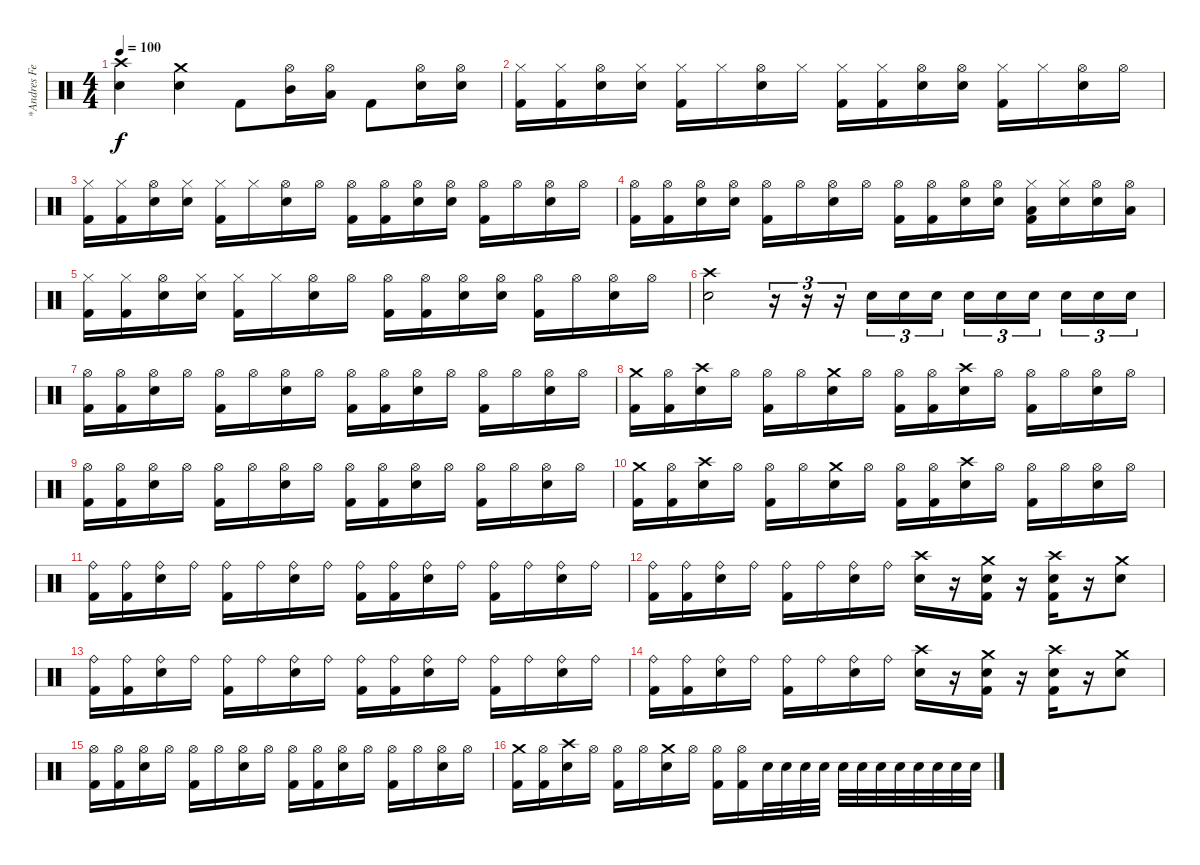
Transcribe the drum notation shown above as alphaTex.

\track ("*Andres Felipe" "*Andres Fe") {instrument percussion}
\staff {score}
\articulation defaults
\ts (4 4)
\tempo 100
\clef neutral
\ks c
("Crash high (hit)" "Electric Snare (hit)").4{dy f} ("Crash medium (hit)" "Electric Snare (hit)").4 "Kick (hit) 2".8 ("Hi-Hat (open)" "Mid Tom (hit)").16 ("Hi-Hat (open)" "Low Tom (hit)").16 "Kick (hit) 2".8 ("Hi-Hat (open)" "Electric Snare (hit)").16 ("Hi-Hat (open)" "Electric Snare (hit)").16 |
("Hi-Hat (closed)" "Kick (hit) 2").16 ("Hi-Hat (closed)" "Kick (hit) 2").16 ("Hi-Hat (open)" "Electric Snare (hit)").16 ("Hi-Hat (closed)" "Electric Snare (hit)").16 ("Hi-Hat (closed)" "Kick (hit) 2").16 "Hi-Hat (closed)".16 ("Hi-Hat (open)" "Electric Snare (hit)").16 "Hi-Hat (closed)".16 ("Hi-Hat (closed)" "Kick (hit) 2").16 ("Hi-Hat (closed)" "Kick (hit) 2").16 ("Hi-Hat (open)" "Electric Snare (hit)").16 ("Hi-Hat (open)" "Electric Snare (hit)").16 ("Hi-Hat (closed)" "Kick (hit) 2").16 "Hi-Hat (closed)".16 ("Hi-Hat (open)" "Electric Snare (hit)").16 "Hi-Hat (open)".16 |
("Hi-Hat (closed)" "Kick (hit) 2").16 ("Hi-Hat (closed)" "Kick (hit) 2").16 ("Hi-Hat (open)" "Electric Snare (hit)").16 ("Hi-Hat (closed)" "Electric Snare (hit)").16 ("Hi-Hat (closed)" "Kick (hit) 2").16 "Hi-Hat (closed)".16 ("Hi-Hat (open)" "Electric Snare (hit)").16 "Hi-Hat (open)".16 ("Hi-Hat (open)" "Kick (hit) 2").16 ("Hi-Hat (open)" "Kick (hit) 2").16 ("Hi-Hat (open)" "Electric Snare (hit)").16 ("Hi-Hat (open)" "Electric Snare (hit)").16 ("Hi-Hat (open)" "Kick (hit) 2").16 "Hi-Hat (open)".16 ("Hi-Hat (open)" "Electric Snare (hit)").16 "Hi-Hat (open)".16 |
("Hi-Hat (open)" "Kick (hit) 2").16 ("Hi-Hat (open)" "Kick (hit) 2").16 ("Hi-Hat (open)" "Electric Snare (hit)").16 ("Hi-Hat (open)" "Electric Snare (hit)").16 ("Hi-Hat (open)" "Kick (hit) 2").16 "Hi-Hat (open)".16 ("Hi-Hat (open)" "Electric Snare (hit)").16 "Hi-Hat (open)".16 ("Hi-Hat (open)" "Kick (hit) 2").16 ("Hi-Hat (open)" "Kick (hit) 2").16 ("Hi-Hat (open)" "Electric Snare (hit)").16 ("Hi-Hat (open)" "Electric Snare (hit)").16 ("Hi-Hat (closed)" "Low Tom (hit)" "Kick (hit) 2").16 ("Hi-Hat (closed)" "Electric Snare (hit)").16 ("Hi-Hat (open)" "Electric Snare (hit)").16 ("Hi-Hat (open)" "Low Tom (hit)").16 |
("Hi-Hat (closed)" "Kick (hit) 2").16 ("Hi-Hat (closed)" "Kick (hit) 2").16 ("Hi-Hat (open)" "Electric Snare (hit)").16 ("Hi-Hat (closed)" "Electric Snare (hit)").16 ("Hi-Hat (closed)" "Kick (hit) 2").16 "Hi-Hat (closed)".16 ("Hi-Hat (open)" "Electric Snare (hit)").16 "Hi-Hat (open)".16 ("Hi-Hat (open)" "Kick (hit) 2").16 ("Hi-Hat (open)" "Kick (hit) 2").16 ("Hi-Hat (open)" "Electric Snare (hit)").16 ("Hi-Hat (open)" "Electric Snare (hit)").16 ("Hi-Hat (open)" "Kick (hit) 2").16 "Hi-Hat (open)".16 ("Hi-Hat (open)" "Electric Snare (hit)").16 "Hi-Hat (open)".16 |
("Crash high (hit)" "Electric Snare (hit)").2 r.16{tu (3 2)} r.16{tu (3 2)} r.16{tu (3 2)} "Electric Snare (hit)".16{tu (3 2)} "Electric Snare (hit)".16{tu (3 2)} "Electric Snare (hit)".16{tu (3 2)} "Electric Snare (hit)".16{tu (3 2)} "Electric Snare (hit)".16{tu (3 2)} "Electric Snare (hit)".16{tu (3 2)} "Electric Snare (hit)".16{tu (3 2)} "Electric Snare (hit)".16{tu (3 2)} "Electric Snare (hit)".16{tu (3 2)} |
("Hi-Hat (open)" "Kick (hit) 2").16 ("Hi-Hat (open)" "Kick (hit) 2").16 ("Hi-Hat (open)" "Electric Snare (hit)").16 "Hi-Hat (open)".16 ("Hi-Hat (open)" "Kick (hit) 2").16 "Hi-Hat (open)".16 ("Hi-Hat (open)" "Electric Snare (hit)").16 "Hi-Hat (open)".16 ("Hi-Hat (open)" "Kick (hit) 2").16 ("Hi-Hat (open)" "Kick (hit) 2").16 ("Hi-Hat (open)" "Electric Snare (hit)").16 "Hi-Hat (open)".16 ("Hi-Hat (open)" "Kick (hit) 2").16 "Hi-Hat (open)".16 ("Hi-Hat (open)" "Electric Snare (hit)").16 "Hi-Hat (open)".16 |
("Crash medium (hit)" "Kick (hit) 2").16 ("Hi-Hat (open)" "Kick (hit) 2").16 ("Crash high (hit)" "Electric Snare (hit)").16 "Hi-Hat (open)".16 ("Hi-Hat (open)" "Kick (hit) 2").16 "Hi-Hat (open)".16 ("Crash medium (hit)" "Electric Snare (hit)").16 "Hi-Hat (open)".16 ("Hi-Hat (open)" "Kick (hit) 2").16 ("Hi-Hat (open)" "Kick (hit) 2").16 ("Crash high (hit)" "Electric Snare (hit)").16 "Hi-Hat (open)".16 ("Hi-Hat (open)" "Kick (hit) 2").16 "Hi-Hat (open)".16 ("Hi-Hat (open)" "Electric Snare (hit)").16 "Hi-Hat (open)".16 |
("Hi-Hat (open)" "Kick (hit) 2").16 ("Hi-Hat (open)" "Kick (hit) 2").16 ("Hi-Hat (open)" "Electric Snare (hit)").16 "Hi-Hat (open)".16 ("Hi-Hat (open)" "Kick (hit) 2").16 "Hi-Hat (open)".16 ("Hi-Hat (open)" "Electric Snare (hit)").16 "Hi-Hat (open)".16 ("Hi-Hat (open)" "Kick (hit) 2").16 ("Hi-Hat (open)" "Kick (hit) 2").16 ("Hi-Hat (open)" "Electric Snare (hit)").16 "Hi-Hat (open)".16 ("Hi-Hat (open)" "Kick (hit) 2").16 "Hi-Hat (open)".16 ("Hi-Hat (open)" "Electric Snare (hit)").16 "Hi-Hat (open)".16 |
("Crash medium (hit)" "Kick (hit) 2").16 ("Hi-Hat (open)" "Kick (hit) 2").16 ("Crash high (hit)" "Electric Snare (hit)").16 "Hi-Hat (open)".16 ("Hi-Hat (open)" "Kick (hit) 2").16 "Hi-Hat (open)".16 ("Crash medium (hit)" "Electric Snare (hit)").16 "Hi-Hat (open)".16 ("Hi-Hat (open)" "Kick (hit) 2").16 ("Hi-Hat (open)" "Kick (hit) 2").16 ("Crash high (hit)" "Electric Snare (hit)").16 "Hi-Hat (open)".16 ("Hi-Hat (open)" "Kick (hit) 2").16 "Hi-Hat (open)".16 ("Hi-Hat (open)" "Electric Snare (hit)").16 "Hi-Hat (open)".16 |
("Ride (bell)" "Kick (hit) 2").16 ("Ride (bell)" "Kick (hit) 2").16 ("Ride (bell)" "Electric Snare (hit)").16 "Ride (bell)".16 ("Ride (bell)" "Kick (hit) 2").16 "Ride (bell)".16 ("Ride (bell)" "Electric Snare (hit)").16 "Ride (bell)".16 ("Ride (bell)" "Kick (hit) 2").16 ("Ride (bell)" "Kick (hit) 2").16 ("Ride (bell)" "Electric Snare (hit)").16 "Ride (bell)".16 ("Ride (bell)" "Kick (hit) 2").16 "Ride (bell)".16 ("Ride (bell)" "Electric Snare (hit)").16 "Ride (bell)".16 |
("Ride (bell)" "Kick (hit) 2").16 ("Ride (bell)" "Kick (hit) 2").16 ("Ride (bell)" "Electric Snare (hit)").16 "Ride (bell)".16 ("Ride (bell)" "Kick (hit) 2").16 "Ride (bell)".16 ("Ride (bell)" "Electric Snare (hit)").16 "Ride (bell)".16 ("Crash high (hit)" "Electric Snare (hit)").16 r.16 ("Crash medium (hit)" "Electric Snare (hit)" "Kick (hit) 2").16 r.16 ("Crash high (hit)" "Electric Snare (hit)" "Kick (hit) 2").16 r.16 ("Crash medium (hit)" "Electric Snare (hit)").8 |
("Ride (bell)" "Kick (hit) 2").16 ("Ride (bell)" "Kick (hit) 2").16 ("Ride (bell)" "Electric Snare (hit)").16 "Ride (bell)".16 ("Ride (bell)" "Kick (hit) 2").16 "Ride (bell)".16 ("Ride (bell)" "Electric Snare (hit)").16 "Ride (bell)".16 ("Ride (bell)" "Kick (hit) 2").16 ("Ride (bell)" "Kick (hit) 2").16 ("Ride (bell)" "Electric Snare (hit)").16 "Ride (bell)".16 ("Ride (bell)" "Kick (hit) 2").16 "Ride (bell)".16 ("Ride (bell)" "Electric Snare (hit)").16 "Ride (bell)".16 |
("Ride (bell)" "Kick (hit) 2").16 ("Ride (bell)" "Kick (hit) 2").16 ("Ride (bell)" "Electric Snare (hit)").16 "Ride (bell)".16 ("Ride (bell)" "Kick (hit) 2").16 "Ride (bell)".16 ("Ride (bell)" "Electric Snare (hit)").16 "Ride (bell)".16 ("Crash high (hit)" "Electric Snare (hit)").16 r.16 ("Crash medium (hit)" "Electric Snare (hit)" "Kick (hit) 2").16 r.16 ("Crash high (hit)" "Electric Snare (hit)" "Kick (hit) 2").16 r.16 ("Crash medium (hit)" "Electric Snare (hit)").8 |
("Hi-Hat (open)" "Kick (hit) 2").16 ("Hi-Hat (open)" "Kick (hit) 2").16 ("Hi-Hat (open)" "Electric Snare (hit)").16 "Hi-Hat (open)".16 ("Hi-Hat (open)" "Kick (hit) 2").16 "Hi-Hat (open)".16 ("Hi-Hat (open)" "Electric Snare (hit)").16 "Hi-Hat (open)".16 ("Hi-Hat (open)" "Kick (hit) 2").16 ("Hi-Hat (open)" "Kick (hit) 2").16 ("Hi-Hat (open)" "Electric Snare (hit)").16 "Hi-Hat (open)".16 ("Hi-Hat (open)" "Kick (hit) 2").16 "Hi-Hat (open)".16 ("Hi-Hat (open)" "Electric Snare (hit)").16 "Hi-Hat (open)".16 |
("Crash medium (hit)" "Kick (hit) 2").16 ("Hi-Hat (open)" "Kick (hit) 2").16 ("Crash high (hit)" "Electric Snare (hit)").16 "Hi-Hat (open)".16 ("Hi-Hat (open)" "Kick (hit) 2").16 "Hi-Hat (open)".16 ("Crash medium (hit)" "Electric Snare (hit)").16 "Hi-Hat (open)".16 ("Hi-Hat (open)" "Kick (hit) 2").16 ("Hi-Hat (open)" "Kick (hit) 2").16 "Electric Snare (hit)".32 "Electric Snare (hit)".32 "Electric Snare (hit)".32 "Electric Snare (hit)".32 "Electric Snare (hit)".32 "Electric Snare (hit)".32 "Electric Snare (hit)".32 "Electric Snare (hit)".32 "Electric Snare (hit)".32 "Electric Snare (hit)".32 "Electric Snare (hit)".32 "Electric Snare (hit)".32
